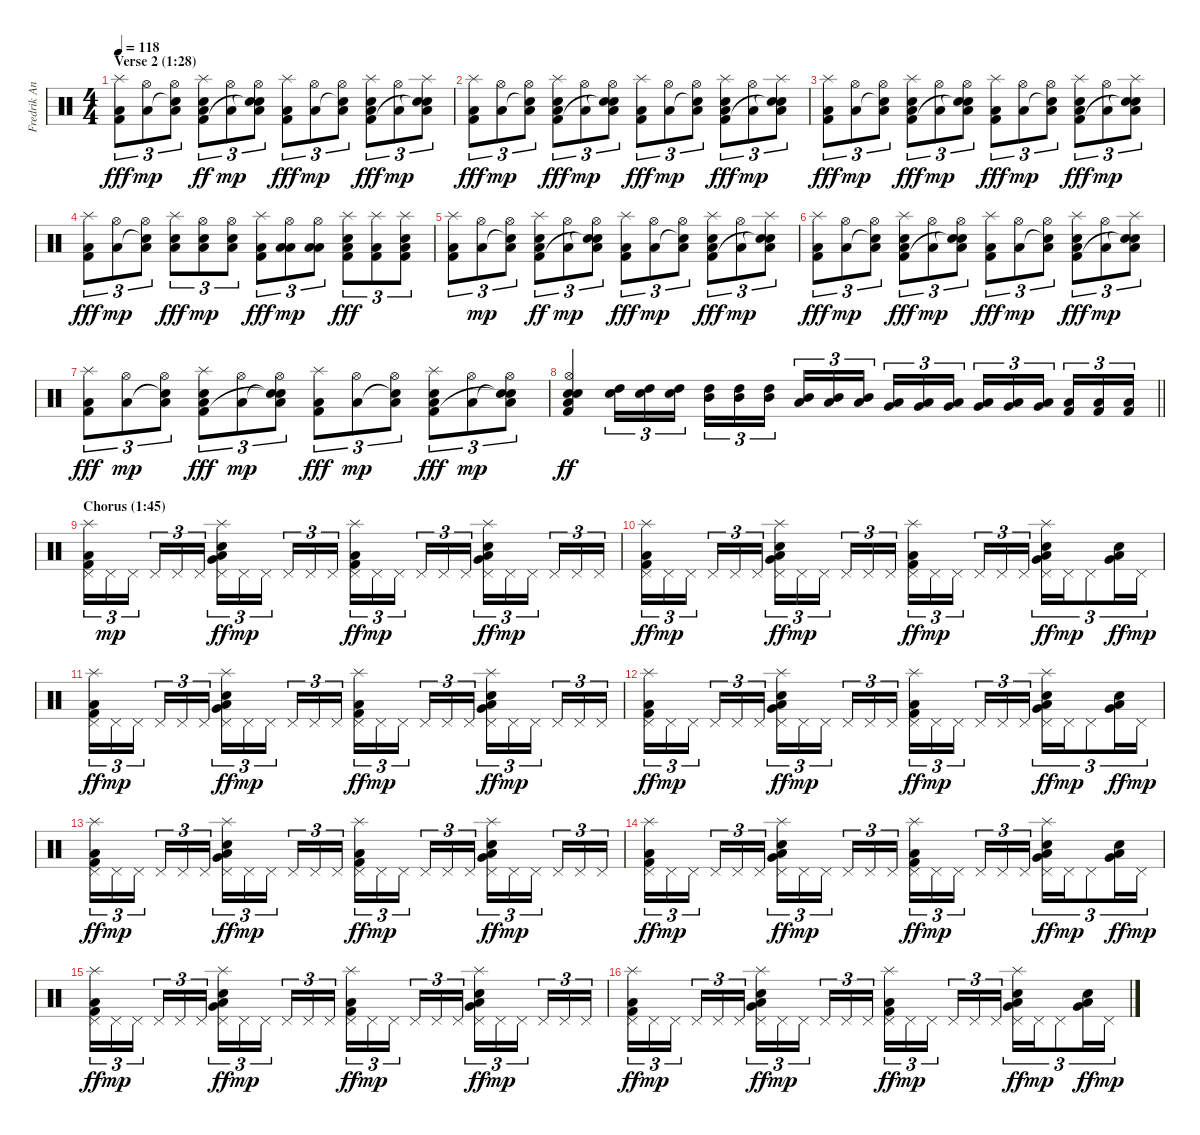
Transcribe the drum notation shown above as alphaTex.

\track ("Fredrik Andersson " "Fredrik An") {instrument percussion}
\staff {score}
\articulation defaults
\ts (4 4)
\section ("" "Verse 2 (1:28)")
\tempo 118
\clef neutral
\ks c
("Splash (hit)" "Kick (hit) 2" "Low Floor Tom (hit)").8{tu (3 2) dy fff} ("Hi-Hat (open)" "Low Floor Tom (hit)").8{tu (3 2) dy mp} ("Hi-Hat (open)" "Snare (hit)"{t} "Low Floor Tom (hit)").8{tu (3 2)} ("Splash (hit)" "Snare (hit) 2" "Kick (hit) 2" "Low Floor Tom (hit)").8{tu (3 2) dy ff} ("Hi-Hat (open)" "Low Floor Tom (hit)").8{tu (3 2) dy mp} ("Hi-Hat (open)" "Snare (hit)"{t} "Snare (hit)"{t} "Low Floor Tom (hit)").8{tu (3 2)} ("Splash (hit)" "Kick (hit) 2" "Low Floor Tom (hit)").8{tu (3 2) dy fff} ("Hi-Hat (open)" "Low Floor Tom (hit)").8{tu (3 2) dy mp} ("Hi-Hat (open)" "Snare (hit)"{t} "Low Floor Tom (hit)").8{tu (3 2)} ("Splash (hit)" "Snare (hit) 2" "Kick (hit) 2" "Low Floor Tom (hit)").8{tu (3 2) dy fff} ("Hi-Hat (open)" "Low Floor Tom (hit)").8{tu (3 2) dy mp} ("Splash (hit)" "Snare (hit)"{t} "Snare (hit)"{t} "Low Floor Tom (hit)").8{tu (3 2)} |
("Splash (hit)" "Kick (hit) 2" "Low Floor Tom (hit)").8{tu (3 2) dy fff} ("Hi-Hat (open)" "Low Floor Tom (hit)").8{tu (3 2) dy mp} ("Hi-Hat (open)" "Snare (hit)"{t} "Low Floor Tom (hit)").8{tu (3 2)} ("Splash (hit)" "Snare (hit) 2" "Kick (hit) 2" "Low Floor Tom (hit)").8{tu (3 2) dy fff} ("Hi-Hat (open)" "Low Floor Tom (hit)").8{tu (3 2) dy mp} ("Hi-Hat (open)" "Snare (hit)"{t} "Snare (hit)"{t} "Low Floor Tom (hit)").8{tu (3 2)} ("Splash (hit)" "Kick (hit) 2" "Low Floor Tom (hit)").8{tu (3 2) dy fff} ("Hi-Hat (open)" "Low Floor Tom (hit)").8{tu (3 2) dy mp} ("Hi-Hat (open)" "Snare (hit)"{t} "Low Floor Tom (hit)").8{tu (3 2)} ("Splash (hit)" "Snare (hit) 2" "Kick (hit) 2" "Low Floor Tom (hit)").8{tu (3 2) dy fff} ("Hi-Hat (open)" "Low Floor Tom (hit)").8{tu (3 2) dy mp} ("Splash (hit)" "Snare (hit)"{t} "Snare (hit)"{t} "Low Floor Tom (hit)").8{tu (3 2)} |
("Splash (hit)" "Kick (hit) 2" "Low Floor Tom (hit)").8{tu (3 2) dy fff} ("Hi-Hat (open)" "Low Floor Tom (hit)").8{tu (3 2) dy mp} ("Hi-Hat (open)" "Snare (hit)"{t} "Low Floor Tom (hit)").8{tu (3 2)} ("Splash (hit)" "Snare (hit) 2" "Kick (hit) 2" "Low Floor Tom (hit)").8{tu (3 2) dy fff} ("Hi-Hat (open)" "Low Floor Tom (hit)").8{tu (3 2) dy mp} ("Hi-Hat (open)" "Snare (hit)"{t} "Snare (hit)"{t} "Low Floor Tom (hit)").8{tu (3 2)} ("Splash (hit)" "Kick (hit) 2" "Low Floor Tom (hit)").8{tu (3 2) dy fff} ("Hi-Hat (open)" "Low Floor Tom (hit)").8{tu (3 2) dy mp} ("Hi-Hat (open)" "Snare (hit)"{t} "Low Floor Tom (hit)").8{tu (3 2)} ("Splash (hit)" "Snare (hit) 2" "Kick (hit) 2" "Low Floor Tom (hit)").8{tu (3 2) dy fff} ("Hi-Hat (open)" "Low Floor Tom (hit)").8{tu (3 2) dy mp} ("Splash (hit)" "Snare (hit)"{t} "Snare (hit)"{t} "Low Floor Tom (hit)").8{tu (3 2)} |
("Splash (hit)" "Kick (hit) 2" "Low Floor Tom (hit)").8{tu (3 2) dy fff} ("Hi-Hat (open)" "Low Floor Tom (hit)").8{tu (3 2) dy mp} ("Hi-Hat (open)" "Snare (hit)"{t} "Low Floor Tom (hit)").8{tu (3 2)} ("Splash (hit)" "Snare (hit) 2" "Low Floor Tom (hit)").8{tu (3 2) dy fff} ("Hi-Hat (open)" "Snare (hit) 2" "Low Floor Tom (hit)").8{tu (3 2) dy mp} ("Hi-Hat (open)" "Snare (hit) 2" "Low Floor Tom (hit)").8{tu (3 2)} ("Splash (hit)" "Kick (hit) 2" "Low Floor Tom (hit)").8{tu (3 2) dy fff} ("Hi-Hat (open)" "Low Tom (hit)" "Low Floor Tom (hit)").8{tu (3 2) dy mp} ("Hi-Hat (open)" "Low Tom (hit)" "Low Floor Tom (hit)").8{tu (3 2)} ("Splash (hit)" "Snare (hit) 2" "Kick (hit) 2" "Low Floor Tom (hit)").8{tu (3 2) dy fff} ("Splash (hit)" "Kick (hit) 2" "Low Floor Tom (hit)").8{tu (3 2)} ("Splash (hit)" "Snare (hit) 2" "Kick (hit) 2" "Low Floor Tom (hit)").8{tu (3 2)} |
("Splash (hit)" "Kick (hit) 2" "Low Floor Tom (hit)").8{tu (3 2)} ("Hi-Hat (open)" "Low Floor Tom (hit)").8{tu (3 2) dy mp} ("Hi-Hat (open)" "Snare (hit)"{t} "Low Floor Tom (hit)").8{tu (3 2)} ("Splash (hit)" "Snare (hit) 2" "Kick (hit) 2" "Low Floor Tom (hit)").8{tu (3 2) dy ff} ("Hi-Hat (open)" "Low Floor Tom (hit)").8{tu (3 2) dy mp} ("Hi-Hat (open)" "Snare (hit)"{t} "Snare (hit)"{t} "Low Floor Tom (hit)").8{tu (3 2)} ("Splash (hit)" "Kick (hit) 2" "Low Floor Tom (hit)").8{tu (3 2) dy fff} ("Hi-Hat (open)" "Low Floor Tom (hit)").8{tu (3 2) dy mp} ("Hi-Hat (open)" "Snare (hit)"{t} "Low Floor Tom (hit)").8{tu (3 2)} ("Splash (hit)" "Snare (hit) 2" "Kick (hit) 2" "Low Floor Tom (hit)").8{tu (3 2) dy fff} ("Hi-Hat (open)" "Low Floor Tom (hit)").8{tu (3 2) dy mp} ("Splash (hit)" "Snare (hit)"{t} "Snare (hit)"{t} "Low Floor Tom (hit)").8{tu (3 2)} |
("Splash (hit)" "Kick (hit) 2" "Low Floor Tom (hit)").8{tu (3 2) dy fff} ("Hi-Hat (open)" "Low Floor Tom (hit)").8{tu (3 2) dy mp} ("Hi-Hat (open)" "Snare (hit)"{t} "Low Floor Tom (hit)").8{tu (3 2)} ("Splash (hit)" "Snare (hit) 2" "Kick (hit) 2" "Low Floor Tom (hit)").8{tu (3 2) dy fff} ("Hi-Hat (open)" "Low Floor Tom (hit)").8{tu (3 2) dy mp} ("Hi-Hat (open)" "Snare (hit)"{t} "Snare (hit)"{t} "Low Floor Tom (hit)").8{tu (3 2)} ("Splash (hit)" "Kick (hit) 2" "Low Floor Tom (hit)").8{tu (3 2) dy fff} ("Hi-Hat (open)" "Low Floor Tom (hit)").8{tu (3 2) dy mp} ("Hi-Hat (open)" "Snare (hit)"{t} "Low Floor Tom (hit)").8{tu (3 2)} ("Splash (hit)" "Snare (hit) 2" "Kick (hit) 2" "Low Floor Tom (hit)").8{tu (3 2) dy fff} ("Hi-Hat (open)" "Low Floor Tom (hit)").8{tu (3 2) dy mp} ("Splash (hit)" "Snare (hit)"{t} "Snare (hit)"{t} "Low Floor Tom (hit)").8{tu (3 2)} |
("Splash (hit)" "Kick (hit) 2" "Low Floor Tom (hit)").8{tu (3 2) dy fff} ("Hi-Hat (open)" "Low Floor Tom (hit)").8{tu (3 2) dy mp} ("Hi-Hat (open)" "Snare (hit)"{t} "Low Floor Tom (hit)").8{tu (3 2)} ("Splash (hit)" "Snare (hit) 2" "Kick (hit) 2" "Low Floor Tom (hit)").8{tu (3 2) dy fff} ("Hi-Hat (open)" "Low Floor Tom (hit)").8{tu (3 2) dy mp} ("Hi-Hat (open)" "Snare (hit)"{t} "Snare (hit)"{t} "Low Floor Tom (hit)").8{tu (3 2)} ("Splash (hit)" "Kick (hit) 2" "Low Floor Tom (hit)").8{tu (3 2) dy fff} ("Hi-Hat (open)" "Low Floor Tom (hit)").8{tu (3 2) dy mp} ("Hi-Hat (open)" "Snare (hit)"{t} "Low Floor Tom (hit)").8{tu (3 2)} ("Splash (hit)" "Snare (hit) 2" "Kick (hit) 2" "Low Floor Tom (hit)").8{tu (3 2) dy fff} ("Hi-Hat (open)" "Low Floor Tom (hit)").8{tu (3 2) dy mp} ("Hi-Hat (open)" "Snare (hit)"{t} "Snare (hit)"{t} "Low Floor Tom (hit)").8{tu (3 2)} |
\barLineRight lightlight
("Hi-Hat (open)" "Electric Snare (hit)" "Snare (hit) 2" "Kick (hit) 2" "Low Floor Tom (hit)").4{dy ff} ("Snare (hit) 2" "High Tom (hit)").16{tu (3 2)} ("Snare (hit) 2" "High Tom (hit)").16{tu (3 2)} ("Snare (hit) 2" "High Tom (hit)").16{tu (3 2) beam splitsecondary} ("High Tom (hit)" "Mid Tom (hit)").16{tu (3 2)} ("High Tom (hit)" "Mid Tom (hit)").16{tu (3 2)} ("High Tom (hit)" "Mid Tom (hit)").16{tu (3 2)} ("Mid Tom (hit)" "Low Tom (hit)").16{tu (3 2)} ("Mid Tom (hit)" "Low Tom (hit)").16{tu (3 2)} ("Mid Tom (hit)" "Low Tom (hit)").16{tu (3 2) beam splitsecondary} ("Low Tom (hit)" "Very Low Tom (hit)").16{tu (3 2)} ("Low Tom (hit)" "Very Low Tom (hit)").16{tu (3 2)} ("Low Tom (hit)" "Very Low Tom (hit)").16{tu (3 2)} ("Very Low Tom (hit)" "Low Floor Tom (hit)").16{tu (3 2)} ("Very Low Tom (hit)" "Low Floor Tom (hit)").16{tu (3 2)} ("Very Low Tom (hit)" "Low Floor Tom (hit)").16{tu (3 2) beam splitsecondary} ("Low Floor Tom (hit)" "Kick (hit) 2").16{tu (3 2)} ("Low Floor Tom (hit)" "Kick (hit) 2").16{tu (3 2)} ("Low Floor Tom (hit)" "Kick (hit) 2").16{tu (3 2)} |
\section ("" "Chorus (1:45)")
("Splash (hit)" "Pedal Hi-Hat (hit)" "Kick (hit) 2" "Low Floor Tom (hit)").16{tu (3 2)} "Pedal Hi-Hat (hit)".16{tu (3 2) dy mp} "Pedal Hi-Hat (hit)".16{tu (3 2) beam splitsecondary} "Pedal Hi-Hat (hit)".16{tu (3 2)} "Pedal Hi-Hat (hit)".16{tu (3 2)} "Pedal Hi-Hat (hit)".16{tu (3 2)} ("Splash (hit)" "Pedal Hi-Hat (hit)" "Very Low Tom (hit)" "Snare (hit) 2" "Low Floor Tom (hit)").16{tu (3 2) dy ff} "Pedal Hi-Hat (hit)".16{tu (3 2) dy mp} "Pedal Hi-Hat (hit)".16{tu (3 2) beam splitsecondary} "Pedal Hi-Hat (hit)".16{tu (3 2)} "Pedal Hi-Hat (hit)".16{tu (3 2)} "Pedal Hi-Hat (hit)".16{tu (3 2)} ("Splash (hit)" "Pedal Hi-Hat (hit)" "Kick (hit) 2" "Low Floor Tom (hit)").16{tu (3 2) dy ff} "Pedal Hi-Hat (hit)".16{tu (3 2) dy mp} "Pedal Hi-Hat (hit)".16{tu (3 2) beam splitsecondary} "Pedal Hi-Hat (hit)".16{tu (3 2)} "Pedal Hi-Hat (hit)".16{tu (3 2)} "Pedal Hi-Hat (hit)".16{tu (3 2)} ("Splash (hit)" "Pedal Hi-Hat (hit)" "Very Low Tom (hit)" "Snare (hit) 2" "Low Floor Tom (hit)").16{tu (3 2) dy ff} "Pedal Hi-Hat (hit)".16{tu (3 2) dy mp} "Pedal Hi-Hat (hit)".16{tu (3 2) beam splitsecondary} "Pedal Hi-Hat (hit)".16{tu (3 2)} "Pedal Hi-Hat (hit)".16{tu (3 2)} "Pedal Hi-Hat (hit)".16{tu (3 2)} |
("Splash (hit)" "Pedal Hi-Hat (hit)" "Kick (hit) 2" "Low Floor Tom (hit)").16{tu (3 2) dy ff} "Pedal Hi-Hat (hit)".16{tu (3 2) dy mp} "Pedal Hi-Hat (hit)".16{tu (3 2) beam splitsecondary} "Pedal Hi-Hat (hit)".16{tu (3 2)} "Pedal Hi-Hat (hit)".16{tu (3 2)} "Pedal Hi-Hat (hit)".16{tu (3 2)} ("Splash (hit)" "Pedal Hi-Hat (hit)" "Very Low Tom (hit)" "Snare (hit) 2" "Low Floor Tom (hit)").16{tu (3 2) dy ff} "Pedal Hi-Hat (hit)".16{tu (3 2) dy mp} "Pedal Hi-Hat (hit)".16{tu (3 2) beam splitsecondary} "Pedal Hi-Hat (hit)".16{tu (3 2)} "Pedal Hi-Hat (hit)".16{tu (3 2)} "Pedal Hi-Hat (hit)".16{tu (3 2)} ("Splash (hit)" "Pedal Hi-Hat (hit)" "Kick (hit) 2" "Low Floor Tom (hit)").16{tu (3 2) dy ff} "Pedal Hi-Hat (hit)".16{tu (3 2) dy mp} "Pedal Hi-Hat (hit)".16{tu (3 2) beam splitsecondary} "Pedal Hi-Hat (hit)".16{tu (3 2)} "Pedal Hi-Hat (hit)".16{tu (3 2)} "Pedal Hi-Hat (hit)".16{tu (3 2)} ("Splash (hit)" "Pedal Hi-Hat (hit)" "Very Low Tom (hit)" "Snare (hit) 2" "Low Floor Tom (hit)").16{tu (3 2) dy ff} "Pedal Hi-Hat (hit)".16{tu (3 2) dy mp} "Pedal Hi-Hat (hit)".8{tu (3 2)} ("Very Low Tom (hit)" "Snare (hit) 2" "Low Floor Tom (hit)").16{tu (3 2) dy ff} "Pedal Hi-Hat (hit)".16{tu (3 2) dy mp} |
("Splash (hit)" "Pedal Hi-Hat (hit)" "Kick (hit) 2" "Low Floor Tom (hit)").16{tu (3 2) dy ff} "Pedal Hi-Hat (hit)".16{tu (3 2) dy mp} "Pedal Hi-Hat (hit)".16{tu (3 2) beam splitsecondary} "Pedal Hi-Hat (hit)".16{tu (3 2)} "Pedal Hi-Hat (hit)".16{tu (3 2)} "Pedal Hi-Hat (hit)".16{tu (3 2)} ("Splash (hit)" "Pedal Hi-Hat (hit)" "Very Low Tom (hit)" "Snare (hit) 2" "Low Floor Tom (hit)").16{tu (3 2) dy ff} "Pedal Hi-Hat (hit)".16{tu (3 2) dy mp} "Pedal Hi-Hat (hit)".16{tu (3 2) beam splitsecondary} "Pedal Hi-Hat (hit)".16{tu (3 2)} "Pedal Hi-Hat (hit)".16{tu (3 2)} "Pedal Hi-Hat (hit)".16{tu (3 2)} ("Splash (hit)" "Pedal Hi-Hat (hit)" "Kick (hit) 2" "Low Floor Tom (hit)").16{tu (3 2) dy ff} "Pedal Hi-Hat (hit)".16{tu (3 2) dy mp} "Pedal Hi-Hat (hit)".16{tu (3 2) beam splitsecondary} "Pedal Hi-Hat (hit)".16{tu (3 2)} "Pedal Hi-Hat (hit)".16{tu (3 2)} "Pedal Hi-Hat (hit)".16{tu (3 2)} ("Splash (hit)" "Pedal Hi-Hat (hit)" "Very Low Tom (hit)" "Snare (hit) 2" "Low Floor Tom (hit)").16{tu (3 2) dy ff} "Pedal Hi-Hat (hit)".16{tu (3 2) dy mp} "Pedal Hi-Hat (hit)".16{tu (3 2) beam splitsecondary} "Pedal Hi-Hat (hit)".16{tu (3 2)} "Pedal Hi-Hat (hit)".16{tu (3 2)} "Pedal Hi-Hat (hit)".16{tu (3 2)} |
("Splash (hit)" "Pedal Hi-Hat (hit)" "Kick (hit) 2" "Low Floor Tom (hit)").16{tu (3 2) dy ff} "Pedal Hi-Hat (hit)".16{tu (3 2) dy mp} "Pedal Hi-Hat (hit)".16{tu (3 2) beam splitsecondary} "Pedal Hi-Hat (hit)".16{tu (3 2)} "Pedal Hi-Hat (hit)".16{tu (3 2)} "Pedal Hi-Hat (hit)".16{tu (3 2)} ("Splash (hit)" "Pedal Hi-Hat (hit)" "Very Low Tom (hit)" "Snare (hit) 2" "Low Floor Tom (hit)").16{tu (3 2) dy ff} "Pedal Hi-Hat (hit)".16{tu (3 2) dy mp} "Pedal Hi-Hat (hit)".16{tu (3 2) beam splitsecondary} "Pedal Hi-Hat (hit)".16{tu (3 2)} "Pedal Hi-Hat (hit)".16{tu (3 2)} "Pedal Hi-Hat (hit)".16{tu (3 2)} ("Splash (hit)" "Pedal Hi-Hat (hit)" "Kick (hit) 2" "Low Floor Tom (hit)").16{tu (3 2) dy ff} "Pedal Hi-Hat (hit)".16{tu (3 2) dy mp} "Pedal Hi-Hat (hit)".16{tu (3 2) beam splitsecondary} "Pedal Hi-Hat (hit)".16{tu (3 2)} "Pedal Hi-Hat (hit)".16{tu (3 2)} "Pedal Hi-Hat (hit)".16{tu (3 2)} ("Splash (hit)" "Pedal Hi-Hat (hit)" "Very Low Tom (hit)" "Snare (hit) 2" "Low Floor Tom (hit)").16{tu (3 2) dy ff} "Pedal Hi-Hat (hit)".16{tu (3 2) dy mp} "Pedal Hi-Hat (hit)".8{tu (3 2)} ("Very Low Tom (hit)" "Snare (hit) 2" "Low Floor Tom (hit)").16{tu (3 2) dy ff} "Pedal Hi-Hat (hit)".16{tu (3 2) dy mp} |
("Splash (hit)" "Pedal Hi-Hat (hit)" "Kick (hit) 2" "Low Floor Tom (hit)").16{tu (3 2) dy ff} "Pedal Hi-Hat (hit)".16{tu (3 2) dy mp} "Pedal Hi-Hat (hit)".16{tu (3 2) beam splitsecondary} "Pedal Hi-Hat (hit)".16{tu (3 2)} "Pedal Hi-Hat (hit)".16{tu (3 2)} "Pedal Hi-Hat (hit)".16{tu (3 2)} ("Splash (hit)" "Pedal Hi-Hat (hit)" "Very Low Tom (hit)" "Snare (hit) 2" "Low Floor Tom (hit)").16{tu (3 2) dy ff} "Pedal Hi-Hat (hit)".16{tu (3 2) dy mp} "Pedal Hi-Hat (hit)".16{tu (3 2) beam splitsecondary} "Pedal Hi-Hat (hit)".16{tu (3 2)} "Pedal Hi-Hat (hit)".16{tu (3 2)} "Pedal Hi-Hat (hit)".16{tu (3 2)} ("Splash (hit)" "Pedal Hi-Hat (hit)" "Kick (hit) 2" "Low Floor Tom (hit)").16{tu (3 2) dy ff} "Pedal Hi-Hat (hit)".16{tu (3 2) dy mp} "Pedal Hi-Hat (hit)".16{tu (3 2) beam splitsecondary} "Pedal Hi-Hat (hit)".16{tu (3 2)} "Pedal Hi-Hat (hit)".16{tu (3 2)} "Pedal Hi-Hat (hit)".16{tu (3 2)} ("Splash (hit)" "Pedal Hi-Hat (hit)" "Very Low Tom (hit)" "Snare (hit) 2" "Low Floor Tom (hit)").16{tu (3 2) dy ff} "Pedal Hi-Hat (hit)".16{tu (3 2) dy mp} "Pedal Hi-Hat (hit)".16{tu (3 2) beam splitsecondary} "Pedal Hi-Hat (hit)".16{tu (3 2)} "Pedal Hi-Hat (hit)".16{tu (3 2)} "Pedal Hi-Hat (hit)".16{tu (3 2)} |
("Splash (hit)" "Pedal Hi-Hat (hit)" "Kick (hit) 2" "Low Floor Tom (hit)").16{tu (3 2) dy ff} "Pedal Hi-Hat (hit)".16{tu (3 2) dy mp} "Pedal Hi-Hat (hit)".16{tu (3 2) beam splitsecondary} "Pedal Hi-Hat (hit)".16{tu (3 2)} "Pedal Hi-Hat (hit)".16{tu (3 2)} "Pedal Hi-Hat (hit)".16{tu (3 2)} ("Splash (hit)" "Pedal Hi-Hat (hit)" "Very Low Tom (hit)" "Snare (hit) 2" "Low Floor Tom (hit)").16{tu (3 2) dy ff} "Pedal Hi-Hat (hit)".16{tu (3 2) dy mp} "Pedal Hi-Hat (hit)".16{tu (3 2) beam splitsecondary} "Pedal Hi-Hat (hit)".16{tu (3 2)} "Pedal Hi-Hat (hit)".16{tu (3 2)} "Pedal Hi-Hat (hit)".16{tu (3 2)} ("Splash (hit)" "Pedal Hi-Hat (hit)" "Kick (hit) 2" "Low Floor Tom (hit)").16{tu (3 2) dy ff} "Pedal Hi-Hat (hit)".16{tu (3 2) dy mp} "Pedal Hi-Hat (hit)".16{tu (3 2) beam splitsecondary} "Pedal Hi-Hat (hit)".16{tu (3 2)} "Pedal Hi-Hat (hit)".16{tu (3 2)} "Pedal Hi-Hat (hit)".16{tu (3 2)} ("Splash (hit)" "Pedal Hi-Hat (hit)" "Very Low Tom (hit)" "Snare (hit) 2" "Low Floor Tom (hit)").16{tu (3 2) dy ff} "Pedal Hi-Hat (hit)".16{tu (3 2) dy mp} "Pedal Hi-Hat (hit)".8{tu (3 2)} ("Very Low Tom (hit)" "Snare (hit) 2" "Low Floor Tom (hit)").16{tu (3 2) dy ff} "Pedal Hi-Hat (hit)".16{tu (3 2) dy mp} |
("Splash (hit)" "Pedal Hi-Hat (hit)" "Kick (hit) 2" "Low Floor Tom (hit)").16{tu (3 2) dy ff} "Pedal Hi-Hat (hit)".16{tu (3 2) dy mp} "Pedal Hi-Hat (hit)".16{tu (3 2) beam splitsecondary} "Pedal Hi-Hat (hit)".16{tu (3 2)} "Pedal Hi-Hat (hit)".16{tu (3 2)} "Pedal Hi-Hat (hit)".16{tu (3 2)} ("Splash (hit)" "Pedal Hi-Hat (hit)" "Very Low Tom (hit)" "Snare (hit) 2" "Low Floor Tom (hit)").16{tu (3 2) dy ff} "Pedal Hi-Hat (hit)".16{tu (3 2) dy mp} "Pedal Hi-Hat (hit)".16{tu (3 2) beam splitsecondary} "Pedal Hi-Hat (hit)".16{tu (3 2)} "Pedal Hi-Hat (hit)".16{tu (3 2)} "Pedal Hi-Hat (hit)".16{tu (3 2)} ("Splash (hit)" "Pedal Hi-Hat (hit)" "Kick (hit) 2" "Low Floor Tom (hit)").16{tu (3 2) dy ff} "Pedal Hi-Hat (hit)".16{tu (3 2) dy mp} "Pedal Hi-Hat (hit)".16{tu (3 2) beam splitsecondary} "Pedal Hi-Hat (hit)".16{tu (3 2)} "Pedal Hi-Hat (hit)".16{tu (3 2)} "Pedal Hi-Hat (hit)".16{tu (3 2)} ("Splash (hit)" "Pedal Hi-Hat (hit)" "Very Low Tom (hit)" "Snare (hit) 2" "Low Floor Tom (hit)").16{tu (3 2) dy ff} "Pedal Hi-Hat (hit)".16{tu (3 2) dy mp} "Pedal Hi-Hat (hit)".16{tu (3 2) beam splitsecondary} "Pedal Hi-Hat (hit)".16{tu (3 2)} "Pedal Hi-Hat (hit)".16{tu (3 2)} "Pedal Hi-Hat (hit)".16{tu (3 2)} |
("Splash (hit)" "Pedal Hi-Hat (hit)" "Kick (hit) 2" "Low Floor Tom (hit)").16{tu (3 2) dy ff} "Pedal Hi-Hat (hit)".16{tu (3 2) dy mp} "Pedal Hi-Hat (hit)".16{tu (3 2) beam splitsecondary} "Pedal Hi-Hat (hit)".16{tu (3 2)} "Pedal Hi-Hat (hit)".16{tu (3 2)} "Pedal Hi-Hat (hit)".16{tu (3 2)} ("Splash (hit)" "Pedal Hi-Hat (hit)" "Very Low Tom (hit)" "Snare (hit) 2" "Low Floor Tom (hit)").16{tu (3 2) dy ff} "Pedal Hi-Hat (hit)".16{tu (3 2) dy mp} "Pedal Hi-Hat (hit)".16{tu (3 2) beam splitsecondary} "Pedal Hi-Hat (hit)".16{tu (3 2)} "Pedal Hi-Hat (hit)".16{tu (3 2)} "Pedal Hi-Hat (hit)".16{tu (3 2)} ("Splash (hit)" "Pedal Hi-Hat (hit)" "Kick (hit) 2" "Low Floor Tom (hit)").16{tu (3 2) dy ff} "Pedal Hi-Hat (hit)".16{tu (3 2) dy mp} "Pedal Hi-Hat (hit)".16{tu (3 2) beam splitsecondary} "Pedal Hi-Hat (hit)".16{tu (3 2)} "Pedal Hi-Hat (hit)".16{tu (3 2)} "Pedal Hi-Hat (hit)".16{tu (3 2)} ("Splash (hit)" "Pedal Hi-Hat (hit)" "Very Low Tom (hit)" "Snare (hit) 2" "Low Floor Tom (hit)").16{tu (3 2) dy ff} "Pedal Hi-Hat (hit)".16{tu (3 2) dy mp} "Pedal Hi-Hat (hit)".8{tu (3 2)} ("Very Low Tom (hit)" "Snare (hit) 2" "Low Floor Tom (hit)").16{tu (3 2) dy ff} "Pedal Hi-Hat (hit)".16{tu (3 2) dy mp}
